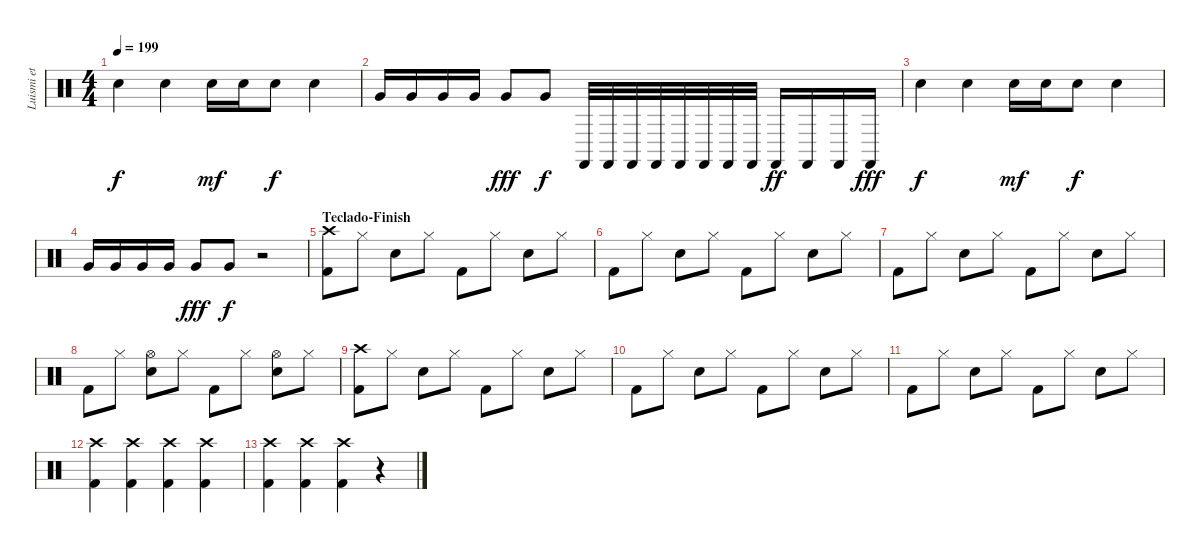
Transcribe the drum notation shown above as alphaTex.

\track ("Luismi et ses castagnettes" "Luismi et ") {instrument percussion}
\staff {score}
\articulation defaults
\ts (4 4)
\tempo 199
\clef neutral
\ks c "Snare (hit) 2".4{dy f} "Snare (hit) 2".4 "Snare (hit) 2".16{dy mf} "Snare (hit) 2".16 "Snare (hit) 2".8{dy f} "Snare (hit) 2".4
|
"Very Low Tom (hit)".16 "Very Low Tom (hit)".16 "Very Low Tom (hit)".16 "Very Low Tom (hit)".16 "Very Low Tom (hit)".8{dy fff} "Very Low Tom (hit)".8{dy f} "Castanets (hit)".32{volume 14} "Castanets (hit)".32 "Castanets (hit)".32 "Castanets (hit)".32 "Castanets (hit)".32 "Castanets (hit)".32 "Castanets (hit)".32 "Castanets (hit)".32 "Castanets (hit)".16{dy ff} "Castanets (hit)".16 "Castanets (hit)".16 "Castanets (hit)".16{dy fff} |
"Snare (hit) 2".4{dy f volume 14} "Snare (hit) 2".4 "Snare (hit) 2".16{dy mf} "Snare (hit) 2".16 "Snare (hit) 2".8{dy f} "Snare (hit) 2".4 |
"Very Low Tom (hit)".16 "Very Low Tom (hit)".16 "Very Low Tom (hit)".16 "Very Low Tom (hit)".16 "Very Low Tom (hit)".8{dy fff} "Very Low Tom (hit)".8{dy f} r.2 |
\section ("" "Teclado-Finish")
("Crash high (hit)" "Kick (hit) 2").8 "Hi-Hat (closed)".8 "Snare (hit) 2".8 "Hi-Hat (closed)".8 "Kick (hit) 2".8 "Hi-Hat (closed)".8 "Snare (hit) 2".8 "Hi-Hat (closed)".8 |
"Kick (hit) 2".8 "Hi-Hat (closed)".8 "Snare (hit) 2".8 "Hi-Hat (closed)".8 "Kick (hit) 2".8 "Hi-Hat (closed)".8 "Snare (hit) 2".8 "Hi-Hat (closed)".8 |
"Kick (hit) 2".8 "Hi-Hat (closed)".8 "Snare (hit) 2".8 "Hi-Hat (closed)".8 "Kick (hit) 2".8 "Hi-Hat (closed)".8 "Snare (hit) 2".8 "Hi-Hat (closed)".8 |
"Kick (hit) 2".8 "Hi-Hat (closed)".8 ("Hi-Hat (open)" "Snare (hit) 2").8 "Hi-Hat (closed)".8 "Kick (hit) 2".8 "Hi-Hat (closed)".8 ("Hi-Hat (open)" "Snare (hit) 2").8 "Hi-Hat (closed)".8 |
("Crash high (hit)" "Kick (hit) 2").8 "Hi-Hat (closed)".8 "Snare (hit) 2".8 "Hi-Hat (closed)".8 "Kick (hit) 2".8 "Hi-Hat (closed)".8 "Snare (hit) 2".8 "Hi-Hat (closed)".8 |
"Kick (hit) 2".8 "Hi-Hat (closed)".8 "Snare (hit) 2".8 "Hi-Hat (closed)".8 "Kick (hit) 2".8 "Hi-Hat (closed)".8 "Snare (hit) 2".8 "Hi-Hat (closed)".8 |
"Kick (hit) 2".8 "Hi-Hat (closed)".8 "Snare (hit) 2".8 "Hi-Hat (closed)".8 "Kick (hit) 2".8 "Hi-Hat (closed)".8 "Snare (hit) 2".8 "Hi-Hat (closed)".8 |
("Crash high (hit)" "Kick (hit) 2").4 ("Crash high (hit)" "Kick (hit) 2").4 ("Crash high (hit)" "Kick (hit) 2").4 ("Crash high (hit)" "Kick (hit) 2").4 |
("Crash high (hit)" "Kick (hit) 2").4 ("Crash high (hit)" "Kick (hit) 2").4 ("Crash high (hit)" "Kick (hit) 2").4 r.4
